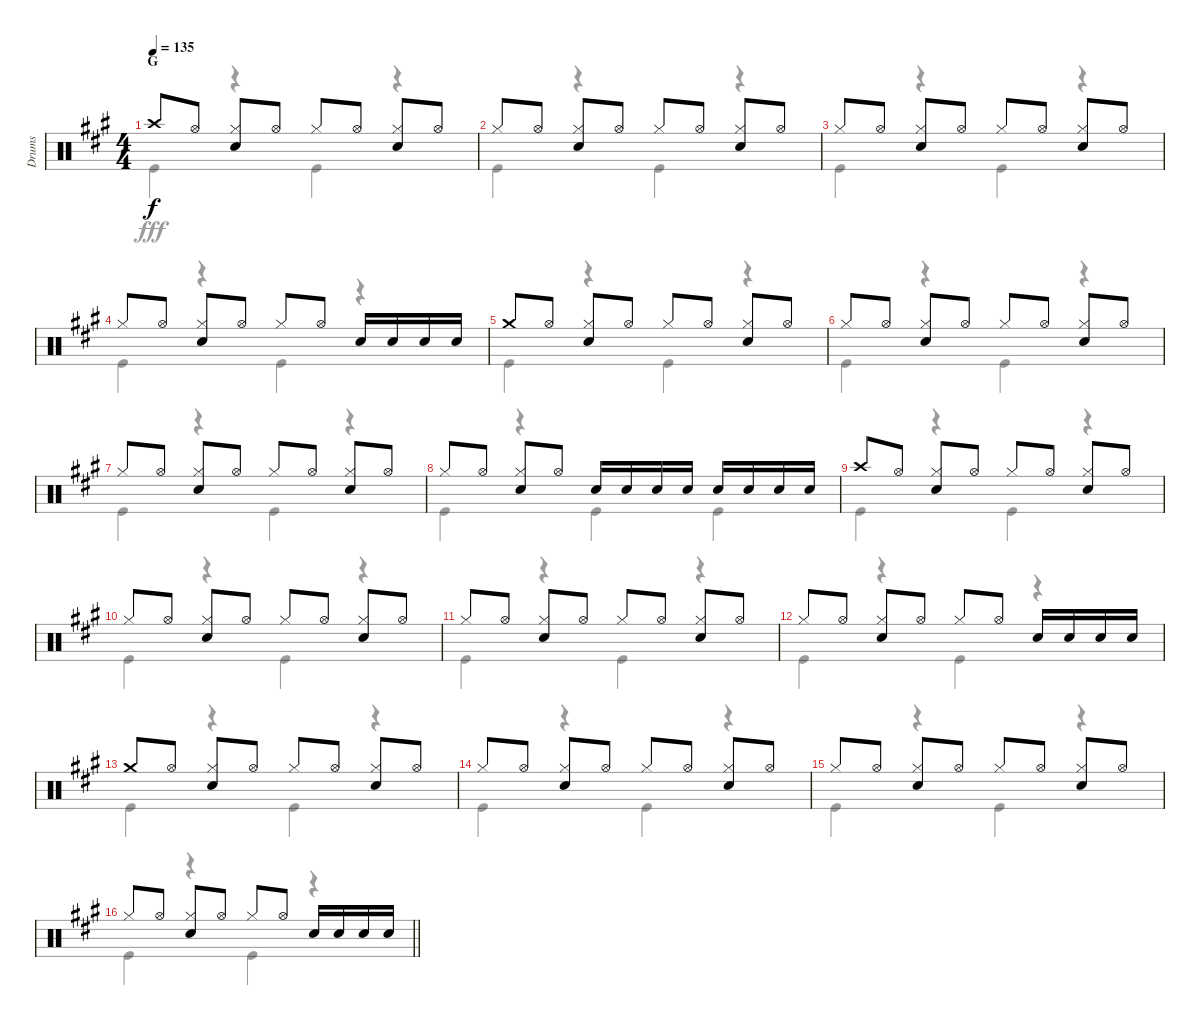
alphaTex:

\track ("Drums" "Drums") {instrument percussion}
\staff {score}
\articulation defaults
\voice
\ts (4 4)
\section ("" "G")
\tempo 135
\clef neutral
\ks a "Crash high (hit)".8{dy f} "Hi-Hat (open)".8
("Hi-Hat (closed)" "Snare (hit) 2").8 "Hi-Hat (open)".8 "Hi-Hat (closed)".8 "Hi-Hat (open)".8 ("Hi-Hat (closed)" "Snare (hit) 2").8 "Hi-Hat (open)".8 |
"Hi-Hat (closed)".8 "Hi-Hat (open)".8 ("Hi-Hat (closed)" "Snare (hit) 2").8 "Hi-Hat (open)".8 "Hi-Hat (closed)".8 "Hi-Hat (open)".8 ("Hi-Hat (closed)" "Snare (hit) 2").8 "Hi-Hat (open)".8 |
"Hi-Hat (closed)".8 "Hi-Hat (open)".8 ("Hi-Hat (closed)" "Snare (hit) 2").8 "Hi-Hat (open)".8 "Hi-Hat (closed)".8 "Hi-Hat (open)".8 ("Hi-Hat (closed)" "Snare (hit) 2").8 "Hi-Hat (open)".8 |
"Hi-Hat (closed)".8 "Hi-Hat (open)".8 ("Hi-Hat (closed)" "Snare (hit) 2").8 "Hi-Hat (open)".8 "Hi-Hat (closed)".8 "Hi-Hat (open)".8 "Snare (hit) 2".16 "Snare (hit) 2".16 "Snare (hit) 2".16 "Snare (hit) 2".16 |
"Crash medium (hit)".8 "Hi-Hat (open)".8 ("Hi-Hat (closed)" "Snare (hit) 2").8 "Hi-Hat (open)".8 "Hi-Hat (closed)".8 "Hi-Hat (open)".8 ("Hi-Hat (closed)" "Snare (hit) 2").8 "Hi-Hat (open)".8 |
"Hi-Hat (closed)".8 "Hi-Hat (open)".8 ("Hi-Hat (closed)" "Snare (hit) 2").8 "Hi-Hat (open)".8 "Hi-Hat (closed)".8 "Hi-Hat (open)".8 ("Hi-Hat (closed)" "Snare (hit) 2").8 "Hi-Hat (open)".8 |
"Hi-Hat (closed)".8 "Hi-Hat (open)".8 ("Hi-Hat (closed)" "Snare (hit) 2").8 "Hi-Hat (open)".8 "Hi-Hat (closed)".8 "Hi-Hat (open)".8 ("Hi-Hat (closed)" "Snare (hit) 2").8 "Hi-Hat (open)".8 |
"Hi-Hat (closed)".8 "Hi-Hat (open)".8 ("Hi-Hat (closed)" "Snare (hit) 2").8 "Hi-Hat (open)".8 "Snare (hit) 2".16 "Snare (hit) 2".16 "Snare (hit) 2".16 "Snare (hit) 2".16 "Snare (hit) 2".16 "Snare (hit) 2".16 "Snare (hit) 2".16 "Snare (hit) 2".16 |
"Crash high (hit)".8 "Hi-Hat (open)".8 ("Hi-Hat (closed)" "Snare (hit) 2").8 "Hi-Hat (open)".8 "Hi-Hat (closed)".8 "Hi-Hat (open)".8 ("Hi-Hat (closed)" "Snare (hit) 2").8 "Hi-Hat (open)".8 |
"Hi-Hat (closed)".8 "Hi-Hat (open)".8 ("Hi-Hat (closed)" "Snare (hit) 2").8 "Hi-Hat (open)".8 "Hi-Hat (closed)".8 "Hi-Hat (open)".8 ("Hi-Hat (closed)" "Snare (hit) 2").8 "Hi-Hat (open)".8 |
"Hi-Hat (closed)".8 "Hi-Hat (open)".8 ("Hi-Hat (closed)" "Snare (hit) 2").8 "Hi-Hat (open)".8 "Hi-Hat (closed)".8 "Hi-Hat (open)".8 ("Hi-Hat (closed)" "Snare (hit) 2").8 "Hi-Hat (open)".8 |
"Hi-Hat (closed)".8 "Hi-Hat (open)".8 ("Hi-Hat (closed)" "Snare (hit) 2").8 "Hi-Hat (open)".8 "Hi-Hat (closed)".8 "Hi-Hat (open)".8 "Snare (hit) 2".16 "Snare (hit) 2".16 "Snare (hit) 2".16 "Snare (hit) 2".16 |
"Crash medium (hit)".8 "Hi-Hat (open)".8 ("Hi-Hat (closed)" "Snare (hit) 2").8 "Hi-Hat (open)".8 "Hi-Hat (closed)".8 "Hi-Hat (open)".8 ("Hi-Hat (closed)" "Snare (hit) 2").8 "Hi-Hat (open)".8 |
"Hi-Hat (closed)".8 "Hi-Hat (open)".8 ("Hi-Hat (closed)" "Snare (hit) 2").8 "Hi-Hat (open)".8 "Hi-Hat (closed)".8 "Hi-Hat (open)".8 ("Hi-Hat (closed)" "Snare (hit) 2").8 "Hi-Hat (open)".8 |
"Hi-Hat (closed)".8 "Hi-Hat (open)".8 ("Hi-Hat (closed)" "Snare (hit) 2").8 "Hi-Hat (open)".8 "Hi-Hat (closed)".8 "Hi-Hat (open)".8 ("Hi-Hat (closed)" "Snare (hit) 2").8 "Hi-Hat (open)".8 |
\barLineRight lightlight "Hi-Hat (closed)".8 "Hi-Hat (open)".8
("Hi-Hat (closed)" "Snare (hit) 2").8 "Hi-Hat (open)".8 "Hi-Hat (closed)".8 "Hi-Hat (open)".8 "Snare (hit) 2".16 "Snare (hit) 2".16 "Snare (hit) 2".16 "Snare (hit) 2".16
\voice
\clef neutral
\ottava regular
\simile none
\ks a "Kick (hit)".4{dy fff}
r.4 "Kick (hit)".4 r.4 |
"Kick (hit)".4 r.4 "Kick (hit)".4 r.4 |
"Kick (hit)".4 r.4 "Kick (hit)".4 r.4 |
"Kick (hit)".4 r.4 "Kick (hit)".4 r.4 |
"Kick (hit)".4 r.4 "Kick (hit)".4 r.4 |
"Kick (hit)".4 r.4 "Kick (hit)".4 r.4 |
"Kick (hit)".4 r.4 "Kick (hit)".4 r.4 |
"Kick (hit)".4 r.4 "Kick (hit)".4 "Kick (hit)".4 |
"Kick (hit)".4 r.4 "Kick (hit)".4 r.4 |
"Kick (hit)".4 r.4 "Kick (hit)".4 r.4 |
"Kick (hit)".4 r.4 "Kick (hit)".4 r.4 |
"Kick (hit)".4 r.4 "Kick (hit)".4 r.4 |
"Kick (hit)".4 r.4 "Kick (hit)".4 r.4 |
"Kick (hit)".4 r.4 "Kick (hit)".4 r.4 |
"Kick (hit)".4 r.4 "Kick (hit)".4 r.4 |
\barLineRight lightlight "Kick (hit)".4
r.4 "Kick (hit)".4 r.4
